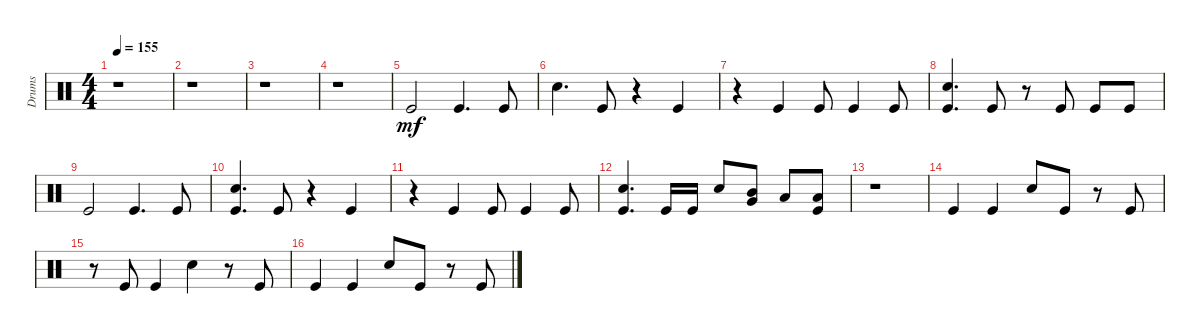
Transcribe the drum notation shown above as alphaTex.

\track ("Drums" "Drums") {instrument percussion}
\staff {score}
\articulation defaults
\ts (4 4)
\tempo 155
\clef neutral
\ks c
r.1{dy mf} |
r.1 |
r.1 |
r.1 |
"Kick (hit)".2 "Kick (hit)".4{d} "Kick (hit)".8 |
"Snare (hit) 2".4{d} "Kick (hit)".8 r.4 "Kick (hit)".4 |
r.4 "Kick (hit)".4 "Kick (hit)".8 "Kick (hit)".4 "Kick (hit)".8 |
("Snare (hit) 2" "Kick (hit)").4{d} "Kick (hit)".8 r.8 "Kick (hit)".8 "Kick (hit)".8 "Kick (hit)".8 |
"Kick (hit)".2 "Kick (hit)".4{d} "Kick (hit)".8 |
("Snare (hit) 2" "Kick (hit)").4{d} "Kick (hit)".8 r.4 "Kick (hit)".4 |
r.4 "Kick (hit)".4 "Kick (hit)".8 "Kick (hit)".4 "Kick (hit)".8 |
("Snare (hit) 2" "Kick (hit)").4{d} "Kick (hit)".16 "Kick (hit)".16 "Snare (hit) 2".8 ("Mid Tom (hit)" "Very Low Tom (hit)").8 "Low Floor Tom (hit)".8 ("Low Floor Tom (hit)" "Kick (hit)").8 |
r.1 |
"Kick (hit)".4 "Kick (hit)".4 "Snare (hit) 2".8 "Kick (hit)".8 r.8 "Kick (hit)".8 |
r.8 "Kick (hit)".8 "Kick (hit)".4 "Snare (hit) 2".4 r.8 "Kick (hit)".8 |
"Kick (hit)".4 "Kick (hit)".4 "Snare (hit) 2".8 "Kick (hit)".8 r.8 "Kick (hit)".8
